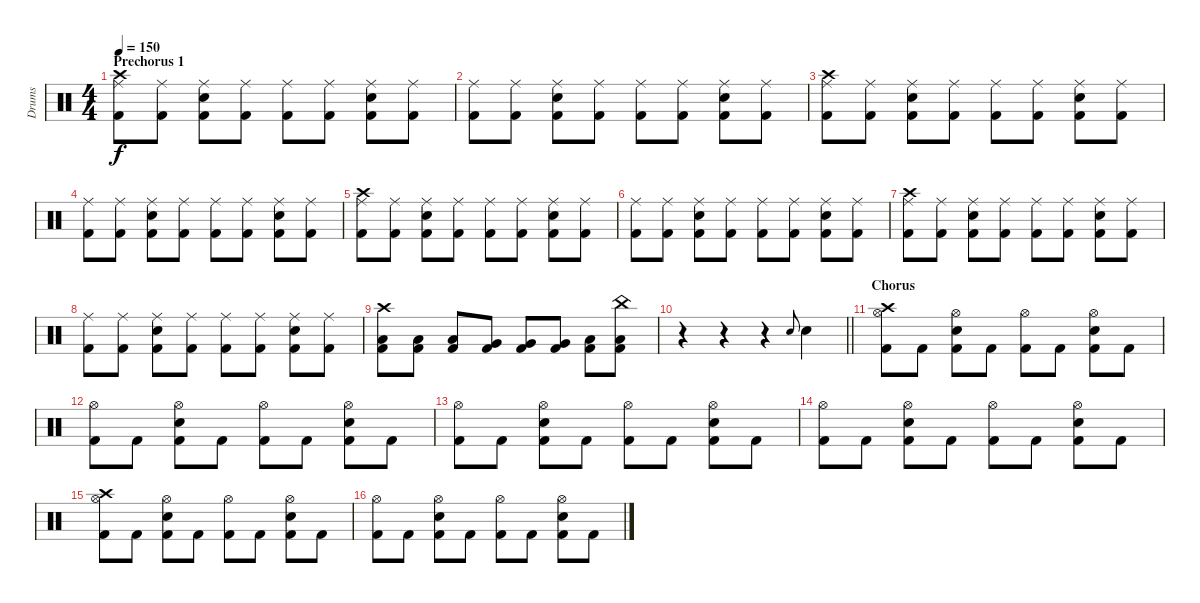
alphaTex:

\track ("Drums" "Drums") {instrument percussion}
\staff {score}
\articulation defaults
\ts (4 4)
\section ("" "Prechorus 1")
\tempo 150
\clef neutral
\ks c
("Crash high (hit)" "Ride (middle)" "Kick (hit) 2").8{dy f} ("Ride (middle)" "Kick (hit) 2").8 ("Ride (middle)" "Snare (hit) 2" "Kick (hit) 2").8 ("Ride (middle)" "Kick (hit) 2").8 ("Ride (middle)" "Kick (hit) 2").8 ("Ride (middle)" "Kick (hit) 2").8 ("Ride (middle)" "Snare (hit) 2" "Kick (hit) 2").8 ("Ride (middle)" "Kick (hit) 2").8 |
("Ride (middle)" "Kick (hit) 2").8 ("Ride (middle)" "Kick (hit) 2").8 ("Ride (middle)" "Snare (hit) 2" "Kick (hit) 2").8 ("Ride (middle)" "Kick (hit) 2").8 ("Ride (middle)" "Kick (hit) 2").8 ("Ride (middle)" "Kick (hit) 2").8 ("Ride (middle)" "Snare (hit) 2" "Kick (hit) 2").8 ("Ride (middle)" "Kick (hit) 2").8 |
("Crash high (hit)" "Ride (middle)" "Kick (hit) 2").8 ("Ride (middle)" "Kick (hit) 2").8 ("Ride (middle)" "Snare (hit) 2" "Kick (hit) 2").8 ("Ride (middle)" "Kick (hit) 2").8 ("Ride (middle)" "Kick (hit) 2").8 ("Ride (middle)" "Kick (hit) 2").8 ("Ride (middle)" "Snare (hit) 2" "Kick (hit) 2").8 ("Ride (middle)" "Kick (hit) 2").8 |
("Ride (middle)" "Kick (hit) 2").8 ("Ride (middle)" "Kick (hit) 2").8 ("Ride (middle)" "Snare (hit) 2" "Kick (hit) 2").8 ("Ride (middle)" "Kick (hit) 2").8 ("Ride (middle)" "Kick (hit) 2").8 ("Ride (middle)" "Kick (hit) 2").8 ("Ride (middle)" "Snare (hit) 2" "Kick (hit) 2").8 ("Ride (middle)" "Kick (hit) 2").8 |
("Crash high (hit)" "Ride (middle)" "Kick (hit) 2").8 ("Ride (middle)" "Kick (hit) 2").8 ("Ride (middle)" "Snare (hit) 2" "Kick (hit) 2").8 ("Ride (middle)" "Kick (hit) 2").8 ("Ride (middle)" "Kick (hit) 2").8 ("Ride (middle)" "Kick (hit) 2").8 ("Ride (middle)" "Snare (hit) 2" "Kick (hit) 2").8 ("Ride (middle)" "Kick (hit) 2").8 |
("Ride (middle)" "Kick (hit) 2").8 ("Ride (middle)" "Kick (hit) 2").8 ("Ride (middle)" "Snare (hit) 2" "Kick (hit) 2").8 ("Ride (middle)" "Kick (hit) 2").8 ("Ride (middle)" "Kick (hit) 2").8 ("Ride (middle)" "Kick (hit) 2").8 ("Ride (middle)" "Snare (hit) 2" "Kick (hit) 2").8 ("Ride (middle)" "Kick (hit) 2").8 |
("Crash high (hit)" "Ride (middle)" "Kick (hit) 2").8 ("Ride (middle)" "Kick (hit) 2").8 ("Ride (middle)" "Snare (hit) 2" "Kick (hit) 2").8 ("Ride (middle)" "Kick (hit) 2").8 ("Ride (middle)" "Kick (hit) 2").8 ("Ride (middle)" "Kick (hit) 2").8 ("Ride (middle)" "Snare (hit) 2" "Kick (hit) 2").8 ("Ride (middle)" "Kick (hit) 2").8 |
("Ride (middle)" "Kick (hit) 2").8 ("Ride (middle)" "Kick (hit) 2").8 ("Ride (middle)" "Snare (hit) 2" "Kick (hit) 2").8 ("Ride (middle)" "Kick (hit) 2").8 ("Ride (middle)" "Kick (hit) 2").8 ("Ride (middle)" "Kick (hit) 2").8 ("Ride (middle)" "Snare (hit) 2" "Kick (hit) 2").8 ("Ride (middle)" "Kick (hit) 2").8 |
("Crash high (hit)" "Low Tom (hit)" "Kick (hit) 2").8 ("Low Tom (hit)" "Kick (hit) 2").8 ("Low Tom (hit)" "Kick (hit) 2").8 ("Very Low Tom (hit)" "Kick (hit) 2").8 ("Very Low Tom (hit)" "Kick (hit) 2").8 ("Very Low Tom (hit)" "Kick (hit) 2").8 ("Low Floor Tom (hit)" "Kick (hit) 2").8 ("China (hit)" "Low Floor Tom (hit)" "Kick (hit) 2").8 |
\barLineRight lightlight
r.4 r.4 r.4 "Snare (hit) 2".8{gr onbeat} "Snare (hit) 2".4 |
\section ("" "Chorus")
("Crash high (hit)" "Hi-Hat (open)" "Kick (hit) 2").8 "Kick (hit) 2".8 ("Hi-Hat (open)" "Snare (hit) 2" "Kick (hit) 2").8 "Kick (hit) 2".8 ("Hi-Hat (open)" "Kick (hit) 2").8 "Kick (hit) 2".8 ("Hi-Hat (open)" "Snare (hit) 2" "Kick (hit) 2").8 "Kick (hit) 2".8 |
("Hi-Hat (open)" "Kick (hit) 2").8 "Kick (hit) 2".8 ("Hi-Hat (open)" "Snare (hit) 2" "Kick (hit) 2").8 "Kick (hit) 2".8 ("Hi-Hat (open)" "Kick (hit) 2").8 "Kick (hit) 2".8 ("Hi-Hat (open)" "Snare (hit) 2" "Kick (hit) 2").8 "Kick (hit) 2".8 |
("Hi-Hat (open)" "Kick (hit) 2").8 "Kick (hit) 2".8 ("Hi-Hat (open)" "Snare (hit) 2" "Kick (hit) 2").8 "Kick (hit) 2".8 ("Hi-Hat (open)" "Kick (hit) 2").8 "Kick (hit) 2".8 ("Hi-Hat (open)" "Snare (hit) 2" "Kick (hit) 2").8 "Kick (hit) 2".8 |
("Hi-Hat (open)" "Kick (hit) 2").8 "Kick (hit) 2".8 ("Hi-Hat (open)" "Snare (hit) 2" "Kick (hit) 2").8 "Kick (hit) 2".8 ("Hi-Hat (open)" "Kick (hit) 2").8 "Kick (hit) 2".8 ("Hi-Hat (open)" "Snare (hit) 2" "Kick (hit) 2").8 "Kick (hit) 2".8 |
("Crash high (hit)" "Hi-Hat (open)" "Kick (hit) 2").8 "Kick (hit) 2".8 ("Hi-Hat (open)" "Snare (hit) 2" "Kick (hit) 2").8 "Kick (hit) 2".8 ("Hi-Hat (open)" "Kick (hit) 2").8 "Kick (hit) 2".8 ("Hi-Hat (open)" "Snare (hit) 2" "Kick (hit) 2").8 "Kick (hit) 2".8 |
("Hi-Hat (open)" "Kick (hit) 2").8 "Kick (hit) 2".8 ("Hi-Hat (open)" "Snare (hit) 2" "Kick (hit) 2").8 "Kick (hit) 2".8 ("Hi-Hat (open)" "Kick (hit) 2").8 "Kick (hit) 2".8 ("Hi-Hat (open)" "Snare (hit) 2" "Kick (hit) 2").8 "Kick (hit) 2".8
